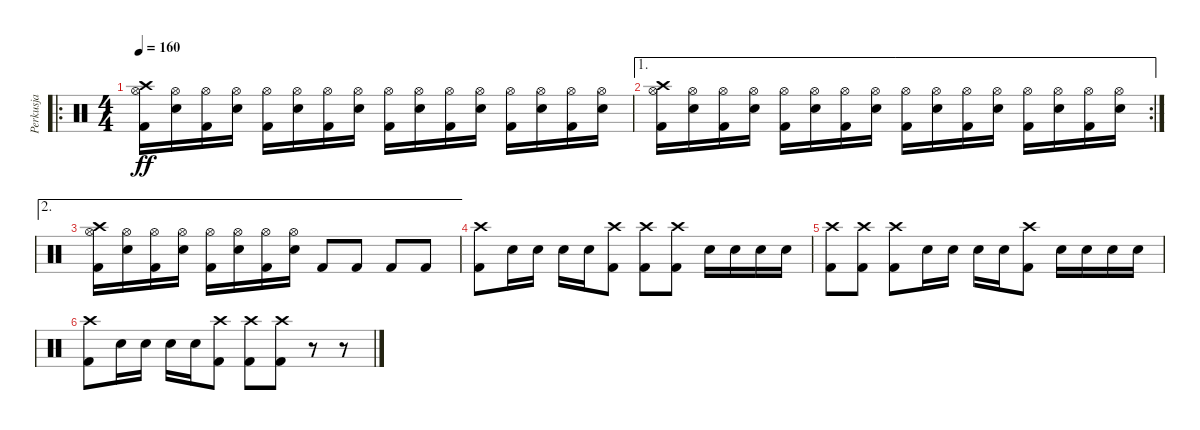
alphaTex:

\track ("Perkusja" "Perkusja") {instrument percussion}
\staff {score}
\articulation defaults
\ro
\ts (4 4)
\tempo 160
\clef neutral
\ks c
("Crash high (hit)" "Hi-Hat (open)" "Kick (hit) 2").16{dy ff} ("Hi-Hat (open)" "Snare (hit) 2").16 ("Hi-Hat (open)" "Kick (hit) 2").16 ("Hi-Hat (open)" "Snare (hit) 2").16 ("Hi-Hat (open)" "Kick (hit) 2").16 ("Hi-Hat (open)" "Snare (hit) 2").16 ("Hi-Hat (open)" "Kick (hit) 2").16 ("Hi-Hat (open)" "Snare (hit) 2").16 ("Hi-Hat (open)" "Kick (hit) 2").16 ("Hi-Hat (open)" "Snare (hit) 2").16 ("Hi-Hat (open)" "Kick (hit) 2").16 ("Hi-Hat (open)" "Snare (hit) 2").16 ("Hi-Hat (open)" "Kick (hit) 2").16 ("Hi-Hat (open)" "Snare (hit) 2").16 ("Hi-Hat (open)" "Kick (hit) 2").16 ("Hi-Hat (open)" "Snare (hit) 2").16 |
\ae 1
\rc 2
("Crash high (hit)" "Hi-Hat (open)" "Kick (hit) 2").16 ("Hi-Hat (open)" "Snare (hit) 2").16 ("Hi-Hat (open)" "Kick (hit) 2").16 ("Hi-Hat (open)" "Snare (hit) 2").16 ("Hi-Hat (open)" "Kick (hit) 2").16 ("Hi-Hat (open)" "Snare (hit) 2").16 ("Hi-Hat (open)" "Kick (hit) 2").16 ("Hi-Hat (open)" "Snare (hit) 2").16 ("Hi-Hat (open)" "Kick (hit) 2").16 ("Hi-Hat (open)" "Snare (hit) 2").16 ("Hi-Hat (open)" "Kick (hit) 2").16 ("Hi-Hat (open)" "Snare (hit) 2").16 ("Hi-Hat (open)" "Kick (hit) 2").16 ("Hi-Hat (open)" "Snare (hit) 2").16 ("Hi-Hat (open)" "Kick (hit) 2").16 ("Hi-Hat (open)" "Snare (hit) 2").16 |
\ae 2
("Crash high (hit)" "Hi-Hat (open)" "Kick (hit) 2").16 ("Hi-Hat (open)" "Snare (hit) 2").16 ("Hi-Hat (open)" "Kick (hit) 2").16 ("Hi-Hat (open)" "Snare (hit) 2").16 ("Hi-Hat (open)" "Kick (hit) 2").16 ("Hi-Hat (open)" "Snare (hit) 2").16 ("Hi-Hat (open)" "Kick (hit) 2").16 ("Hi-Hat (open)" "Snare (hit) 2").16 "Kick (hit) 2".8 "Kick (hit) 2".8 "Kick (hit) 2".8 "Kick (hit) 2".8 |
("Crash high (hit)" "Kick (hit) 2").8 "Snare (hit) 2".16 "Snare (hit) 2".16 "Snare (hit) 2".16 "Snare (hit) 2".16 ("Crash high (hit)" "Kick (hit) 2").8 ("Crash high (hit)" "Kick (hit) 2").8 ("Crash high (hit)" "Kick (hit) 2").8 "Snare (hit) 2".16 "Snare (hit) 2".16 "Snare (hit) 2".16 "Snare (hit) 2".16 |
("Crash high (hit)" "Kick (hit) 2").8 ("Crash high (hit)" "Kick (hit) 2").8 ("Crash high (hit)" "Kick (hit) 2").8 "Snare (hit) 2".16 "Snare (hit) 2".16 "Snare (hit) 2".16 "Snare (hit) 2".16 ("Crash high (hit)" "Kick (hit) 2").8 "Snare (hit) 2".16 "Snare (hit) 2".16 "Snare (hit) 2".16 "Snare (hit) 2".16 |
("Crash high (hit)" "Kick (hit) 2").8 "Snare (hit) 2".16 "Snare (hit) 2".16 "Snare (hit) 2".16 "Snare (hit) 2".16 ("Crash high (hit)" "Kick (hit) 2").8 ("Crash high (hit)" "Kick (hit) 2").8 ("Crash high (hit)" "Kick (hit) 2").8 r.8 r.8
